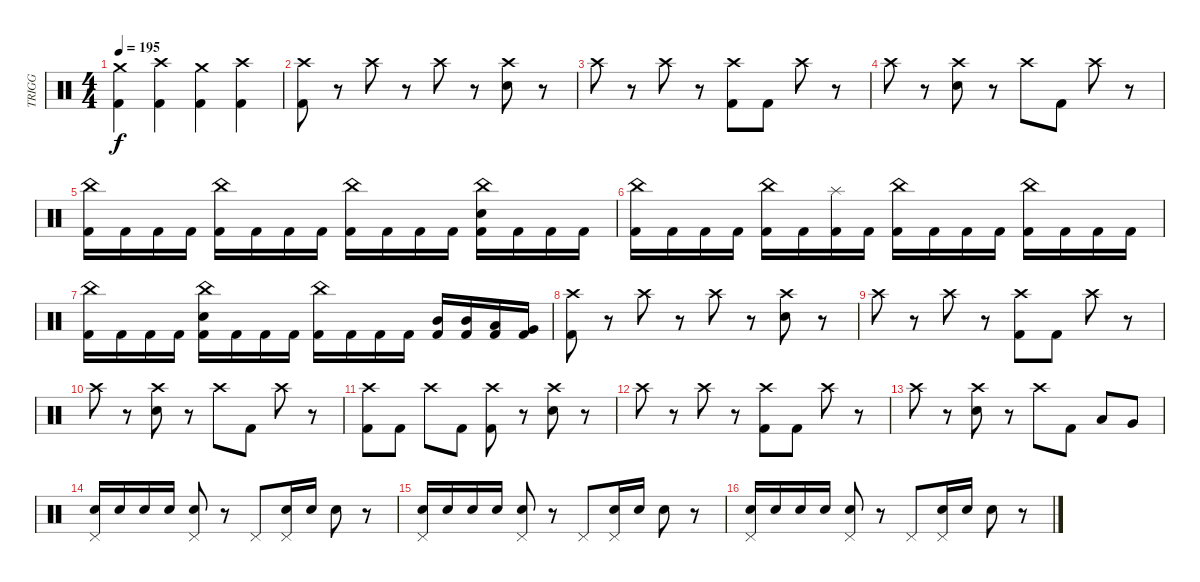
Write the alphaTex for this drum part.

\track ("TRIGG" "TRIGG") {instrument percussion}
\staff {score}
\articulation defaults
\ts (4 4)
\tempo 195
\clef neutral
\ks c
("Crash medium (hit)" "Kick (hit) 2").4{dy f} ("Crash high (hit)" "Kick (hit) 2").4 ("Crash medium (hit)" "Kick (hit) 2").4 ("Crash high (hit)" "Kick (hit) 2").4 |
("Crash high (hit)" "Kick (hit) 2").8 r.8 "Crash high (hit)".8 r.8 "Crash high (hit)".8 r.8 ("Crash high (hit)" "Electric Snare (hit)").8 r.8 |
"Crash high (hit)".8 r.8 "Crash high (hit)".8 r.8 ("Crash high (hit)" "Kick (hit) 2").8 "Kick (hit) 2".8 "Crash high (hit)".8 r.8 |
"Crash high (hit)".8 r.8 ("Crash high (hit)" "Electric Snare (hit)").8 r.8 "Crash high (hit)".8 "Kick (hit) 2".8 "Crash high (hit)".8 r.8 |
("China (hit)" "Kick (hit) 2").16 "Kick (hit) 2".16 "Kick (hit) 2".16 "Kick (hit) 2".16 ("China (hit)" "Kick (hit) 2").16 "Kick (hit) 2".16 "Kick (hit) 2".16 "Kick (hit) 2".16 ("China (hit)" "Kick (hit) 2").16 "Kick (hit) 2".16 "Kick (hit) 2".16 "Kick (hit) 2".16 ("China (hit)" "Electric Snare (hit)" "Kick (hit) 2").16 "Kick (hit) 2".16 "Kick (hit) 2".16 "Kick (hit) 2".16 |
("China (hit)" "Kick (hit) 2").16 "Kick (hit) 2".16 "Kick (hit) 2".16 "Kick (hit) 2".16 ("China (hit)" "Kick (hit) 2").16 "Kick (hit) 2".16 ("Splash (hit)" "Kick (hit) 2").16 "Kick (hit) 2".16 ("China (hit)" "Kick (hit) 2").16 "Kick (hit) 2".16 "Kick (hit) 2".16 "Kick (hit) 2".16 ("China (hit)" "Kick (hit) 2").16 "Kick (hit) 2".16 "Kick (hit) 2".16 "Kick (hit) 2".16 |
("China (hit)" "Kick (hit) 2").16 "Kick (hit) 2".16 "Kick (hit) 2".16 "Kick (hit) 2".16 ("China (hit)" "Electric Snare (hit)" "Kick (hit) 2").16 "Kick (hit) 2".16 "Kick (hit) 2".16 "Kick (hit) 2".16 ("China (hit)" "Kick (hit) 2").16 "Kick (hit) 2".16 "Kick (hit) 2".16 "Kick (hit) 2".16 ("Mid Tom (hit)" "Kick (hit) 2").16 ("Mid Tom (hit)" "Kick (hit) 2").16 ("Low Tom (hit)" "Kick (hit) 2").16 ("Very Low Tom (hit)" "Kick (hit) 2").16 |
("Crash high (hit)" "Kick (hit) 2").8 r.8 "Crash high (hit)".8 r.8 "Crash high (hit)".8 r.8 ("Crash high (hit)" "Electric Snare (hit)").8 r.8 |
"Crash high (hit)".8 r.8 "Crash high (hit)".8 r.8 ("Crash high (hit)" "Kick (hit) 2").8 "Kick (hit) 2".8 "Crash high (hit)".8 r.8 |
"Crash high (hit)".8 r.8 ("Crash high (hit)" "Electric Snare (hit)").8 r.8 "Crash high (hit)".8 "Kick (hit) 2".8 "Crash high (hit)".8 r.8 |
("Crash high (hit)" "Kick (hit) 2").8 "Kick (hit) 2".8 "Crash high (hit)".8 "Kick (hit) 2".8 ("Crash high (hit)" "Kick (hit) 2").8 r.8 ("Crash high (hit)" "Electric Snare (hit)").8 r.8 |
"Crash high (hit)".8 r.8 "Crash high (hit)".8 r.8 ("Crash high (hit)" "Kick (hit) 2").8 "Kick (hit) 2".8 "Crash high (hit)".8 r.8 |
"Crash high (hit)".8 r.8 ("Crash high (hit)" "Electric Snare (hit)").8 r.8 "Crash high (hit)".8 "Kick (hit) 2".8 "Low Tom (hit)".8 "Very Low Tom (hit)".8 |
("Pedal Hi-Hat (hit)" "Electric Snare (hit)").16 "Electric Snare (hit)".16 "Electric Snare (hit)".16 "Electric Snare (hit)".16 ("Pedal Hi-Hat (hit)" "Electric Snare (hit)").8 r.8 "Pedal Hi-Hat (hit)".8 ("Pedal Hi-Hat (hit)" "Electric Snare (hit)").16 "Electric Snare (hit)".16 "Electric Snare (hit)".8 r.8 |
("Pedal Hi-Hat (hit)" "Electric Snare (hit)").16 "Electric Snare (hit)".16 "Electric Snare (hit)".16 "Electric Snare (hit)".16 ("Pedal Hi-Hat (hit)" "Electric Snare (hit)").8 r.8 "Pedal Hi-Hat (hit)".8 ("Pedal Hi-Hat (hit)" "Electric Snare (hit)").16 "Electric Snare (hit)".16 "Electric Snare (hit)".8 r.8 |
("Pedal Hi-Hat (hit)" "Electric Snare (hit)").16 "Electric Snare (hit)".16 "Electric Snare (hit)".16 "Electric Snare (hit)".16 ("Pedal Hi-Hat (hit)" "Electric Snare (hit)").8 r.8 "Pedal Hi-Hat (hit)".8 ("Pedal Hi-Hat (hit)" "Electric Snare (hit)").16 "Electric Snare (hit)".16 "Electric Snare (hit)".8 r.8
